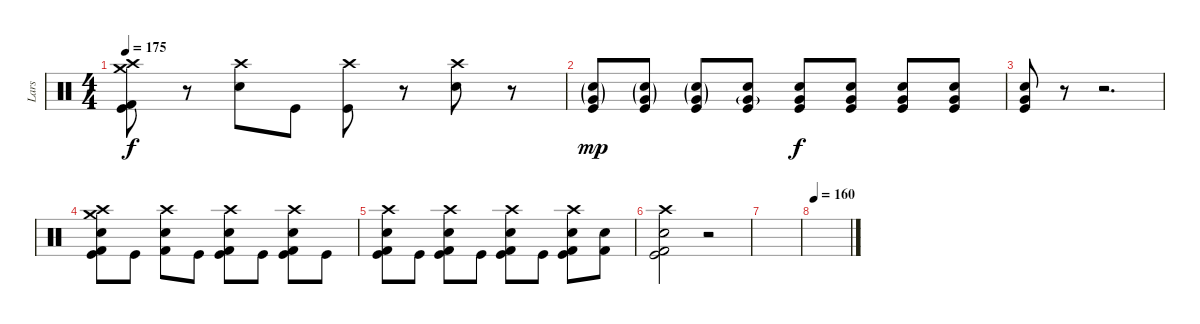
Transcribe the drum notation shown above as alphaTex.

\track ("Lars" "Lars") {instrument percussion}
\staff {score}
\articulation defaults
\ts (4 4)
\tempo 175
\clef neutral
\ks c
("Crash high (hit)" "Crash medium (hit)" "Kick (hit) 2" "Kick (hit)").8{dy f} r.8 ("Crash high (hit)" "Snare (hit) 2").8 "Kick (hit)".8 ("Crash high (hit)" "Kick (hit)").8 r.8 ("Crash high (hit)" "Snare (hit) 2").8 r.8 |
("Snare (hit) 2"{g} "Very Low Tom (hit)"{g} "Kick (hit)").8{dy mp} ("Snare (hit) 2"{g} "Very Low Tom (hit)"{g} "Kick (hit)").8 ("Snare (hit) 2"{g} "Very Low Tom (hit)"{g} "Kick (hit)").8 ("Snare (hit) 2" "Very Low Tom (hit)"{g} "Kick (hit)").8 ("Snare (hit) 2" "Very Low Tom (hit)" "Kick (hit)").8{dy f} ("Snare (hit) 2" "Very Low Tom (hit)" "Kick (hit)").8 ("Snare (hit) 2" "Very Low Tom (hit)" "Kick (hit)").8 ("Snare (hit) 2" "Very Low Tom (hit)" "Kick (hit)").8 |
("Snare (hit) 2" "Very Low Tom (hit)" "Kick (hit)").8 r.8 r.2{d} |
("Crash high (hit)" "Snare (hit) 2" "Crash medium (hit)" "Kick (hit) 2" "Kick (hit)").8 "Kick (hit)".8 ("Crash high (hit)" "Snare (hit) 2" "Kick (hit) 2").8 "Kick (hit)".8 ("Crash high (hit)" "Snare (hit) 2" "Kick (hit) 2" "Kick (hit)").8 "Kick (hit)".8 ("Crash high (hit)" "Snare (hit) 2" "Kick (hit) 2" "Kick (hit)").8 "Kick (hit)".8 |
("Crash high (hit)" "Snare (hit) 2" "Kick (hit) 2" "Kick (hit)").8 "Kick (hit)".8 ("Crash high (hit)" "Snare (hit) 2" "Kick (hit) 2" "Kick (hit)").8 "Kick (hit)".8 ("Crash high (hit)" "Snare (hit) 2" "Kick (hit) 2" "Kick (hit)").8 "Kick (hit)".8 ("Crash high (hit)" "Snare (hit) 2" "Kick (hit) 2" "Kick (hit)").8 ("Snare (hit) 2" "Kick (hit) 2").8 |
("Crash high (hit)" "Snare (hit) 2" "Kick (hit) 2" "Kick (hit)").2 r.2 |
|
\tempo 160
